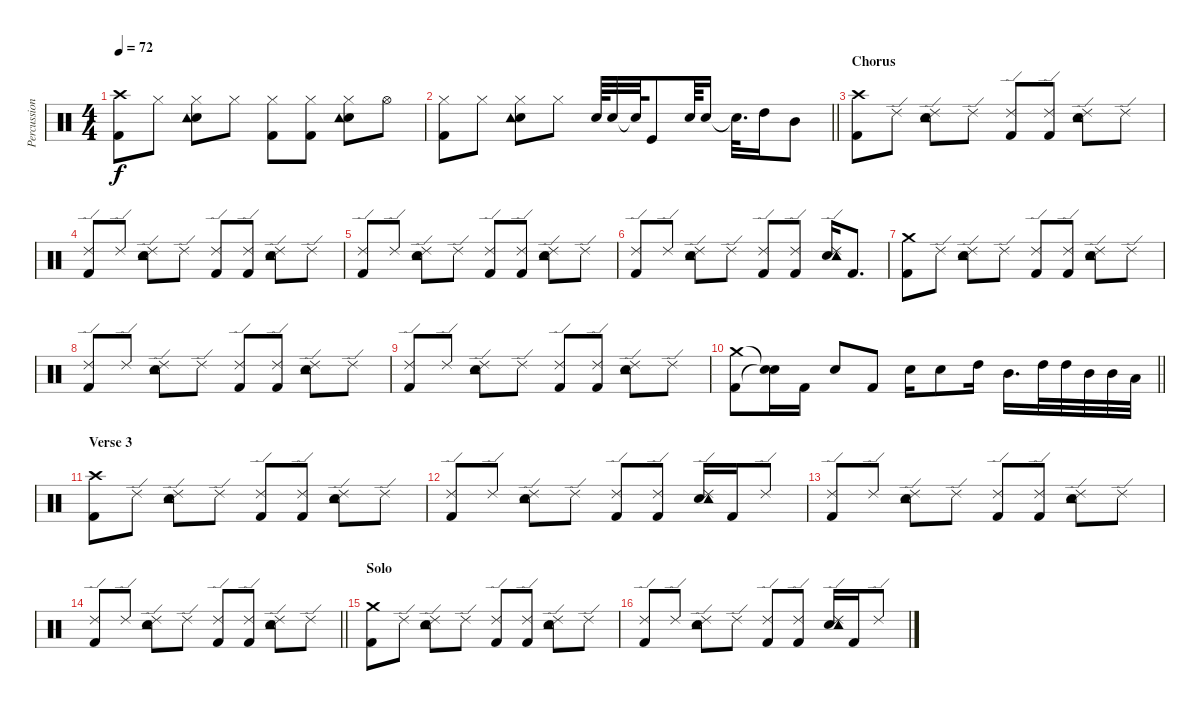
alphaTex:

\track ("Percussion" "Percussion") {instrument percussion}
\staff {score}
\articulation defaults
\ts (4 4)
\tempo 72
\clef neutral
\ks c
("Crash high (hit)" "Kick (hit) 2").8{dy f} "Hi-Hat (closed)".8 ("Hi-Hat (closed)" "Snare (hit) 2" "Tambourine (hit)").8 "Hi-Hat (closed)".8 ("Hi-Hat (closed)" "Kick (hit) 2").8 ("Hi-Hat (closed)" "Kick (hit) 2").8 ("Hi-Hat (closed)" "Snare (hit) 2" "Tambourine (hit)").8 "Hi-Hat (open)".8 |
\barLineRight lightlight
("Hi-Hat (closed)" "Kick (hit) 2").8 "Hi-Hat (closed)".8 ("Hi-Hat (closed)" "Snare (hit) 2" "Tambourine (hit)").8 "Hi-Hat (closed)".8 "Snare (hit) 2".64 "Snare (hit) 2".32 "Snare (hit)"{t}.64 "Kick (hit)".8 "Snare (hit) 2".64 "Snare (hit) 2".16 "Snare (hit)"{t}.32{d} "High Tom (hit)".16 "Mid Tom (hit)".8 |
\section ("" "Chorus")
("Crash high (hit)" "Kick (hit) 2").8 "Ride (edge) 2".8 ("Ride (edge) 2" "Snare (hit) 2" "Tambourine (hit)").8 "Ride (edge) 2".8 ("Ride (edge) 2" "Kick (hit) 2").8 ("Ride (edge) 2" "Kick (hit) 2").8 ("Ride (edge) 2" "Snare (hit) 2" "Tambourine (hit)").8 "Ride (edge) 2".8 |
("Ride (edge) 2" "Kick (hit) 2").8 "Ride (edge) 2".8 ("Ride (edge) 2" "Snare (hit) 2" "Tambourine (hit)").8 "Ride (edge) 2".8 ("Ride (edge) 2" "Kick (hit) 2").8 ("Ride (edge) 2" "Kick (hit) 2").8 ("Ride (edge) 2" "Snare (hit) 2" "Tambourine (hit)").8 "Ride (edge) 2".8 |
("Ride (edge) 2" "Kick (hit) 2").8 "Ride (edge) 2".8 ("Ride (edge) 2" "Snare (hit) 2" "Tambourine (hit)").8 "Ride (edge) 2".8 ("Ride (edge) 2" "Kick (hit) 2").8 ("Ride (edge) 2" "Kick (hit) 2").8 ("Ride (edge) 2" "Snare (hit) 2" "Tambourine (hit)").8 "Ride (edge) 2".8 |
("Ride (edge) 2" "Kick (hit) 2").8 "Ride (edge) 2".8 ("Ride (edge) 2" "Snare (hit) 2" "Tambourine (hit)").8 "Ride (edge) 2".8 ("Ride (edge) 2" "Kick (hit) 2").8 ("Ride (edge) 2" "Kick (hit) 2").8 ("Ride (edge) 2" "Snare (hit) 2" "Tambourine (hit)").16 "Kick (hit) 2".8{d} |
("Crash medium (hit)" "Kick (hit) 2").8 "Ride (edge) 2".8 ("Ride (edge) 2" "Snare (hit) 2" "Tambourine (hit)").8 "Ride (edge) 2".8 ("Ride (edge) 2" "Kick (hit) 2").8 ("Ride (edge) 2" "Kick (hit) 2").8 ("Ride (edge) 2" "Snare (hit) 2" "Tambourine (hit)").8 "Ride (edge) 2".8 |
("Ride (edge) 2" "Kick (hit) 2").8 "Ride (edge) 2".8 ("Ride (edge) 2" "Snare (hit) 2" "Tambourine (hit)").8 "Ride (edge) 2".8 ("Ride (edge) 2" "Kick (hit) 2").8 ("Ride (edge) 2" "Kick (hit) 2").8 ("Ride (edge) 2" "Snare (hit) 2" "Tambourine (hit)").8 "Ride (edge) 2".8 |
("Ride (edge) 2" "Kick (hit) 2").8 "Ride (edge) 2".8 ("Ride (edge) 2" "Snare (hit) 2" "Tambourine (hit)").8 "Ride (edge) 2".8 ("Ride (edge) 2" "Kick (hit) 2").8 ("Ride (edge) 2" "Kick (hit) 2").8 ("Ride (edge) 2" "Snare (hit) 2" "Tambourine (hit)").8 "Ride (edge) 2".8 |
\barLineRight lightlight
("Crash medium (hit)" "Kick (hit) 2").8 ("Snare (hit)"{t} "Snare (hit)"{t}).16 "Kick (hit) 2".16 "Snare (hit) 2".8 "Kick (hit) 2".8 "Snare (hit) 2".16 "Snare (hit) 2".8 "High Tom (hit)".16 "Mid Tom (hit)".16{d} "High Tom (hit)".32 "High Tom (hit)".32 "Mid Tom (hit)".32 "Mid Tom (hit)".32 "Low Tom (hit)".32 |
\section ("" "Verse 3")
("Crash high (hit)" "Kick (hit) 2").8 "Ride (edge) 2".8 ("Ride (edge) 2" "Snare (hit) 2" "Tambourine (hit)").8 "Ride (edge) 2".8 ("Ride (edge) 2" "Kick (hit) 2").8 ("Ride (edge) 2" "Kick (hit) 2").8 ("Ride (edge) 2" "Snare (hit) 2" "Tambourine (hit)").8 "Ride (edge) 2".8 |
("Ride (edge) 2" "Kick (hit) 2").8 "Ride (edge) 2".8 ("Ride (edge) 2" "Snare (hit) 2" "Tambourine (hit)").8 "Ride (edge) 2".8 ("Ride (edge) 2" "Kick (hit) 2").8 ("Ride (edge) 2" "Kick (hit) 2").8 ("Ride (edge) 2" "Snare (hit) 2" "Tambourine (hit)").16 "Kick (hit) 2".16 "Ride (edge) 2".8 |
("Ride (edge) 2" "Kick (hit) 2").8 "Ride (edge) 2".8 ("Ride (edge) 2" "Snare (hit) 2" "Tambourine (hit)").8 "Ride (edge) 2".8 ("Ride (edge) 2" "Kick (hit) 2").8 ("Ride (edge) 2" "Kick (hit) 2").8 ("Ride (edge) 2" "Snare (hit) 2" "Tambourine (hit)").8 "Ride (edge) 2".8 |
\barLineRight lightlight
("Ride (edge) 2" "Kick (hit) 2").8 "Ride (edge) 2".8 ("Ride (edge) 2" "Snare (hit) 2" "Tambourine (hit)").8 "Ride (edge) 2".8 ("Ride (edge) 2" "Kick (hit) 2").8 ("Ride (edge) 2" "Kick (hit) 2").8 ("Ride (edge) 2" "Snare (hit) 2" "Tambourine (hit)").8 "Ride (edge) 2".8 |
\section ("" "Solo")
("Crash medium (hit)" "Kick (hit) 2").8 "Ride (edge) 2".8 ("Ride (edge) 2" "Snare (hit) 2" "Tambourine (hit)").8 "Ride (edge) 2".8 ("Ride (edge) 2" "Kick (hit) 2").8 ("Ride (edge) 2" "Kick (hit) 2").8 ("Ride (edge) 2" "Snare (hit) 2" "Tambourine (hit)").8 "Ride (edge) 2".8 |
("Ride (edge) 2" "Kick (hit) 2").8 "Ride (edge) 2".8 ("Ride (edge) 2" "Snare (hit) 2" "Tambourine (hit)").8 "Ride (edge) 2".8 ("Ride (edge) 2" "Kick (hit) 2").8 ("Ride (edge) 2" "Kick (hit) 2").8 ("Ride (edge) 2" "Snare (hit) 2" "Tambourine (hit)").16 "Kick (hit) 2".16 "Ride (edge) 2".8
